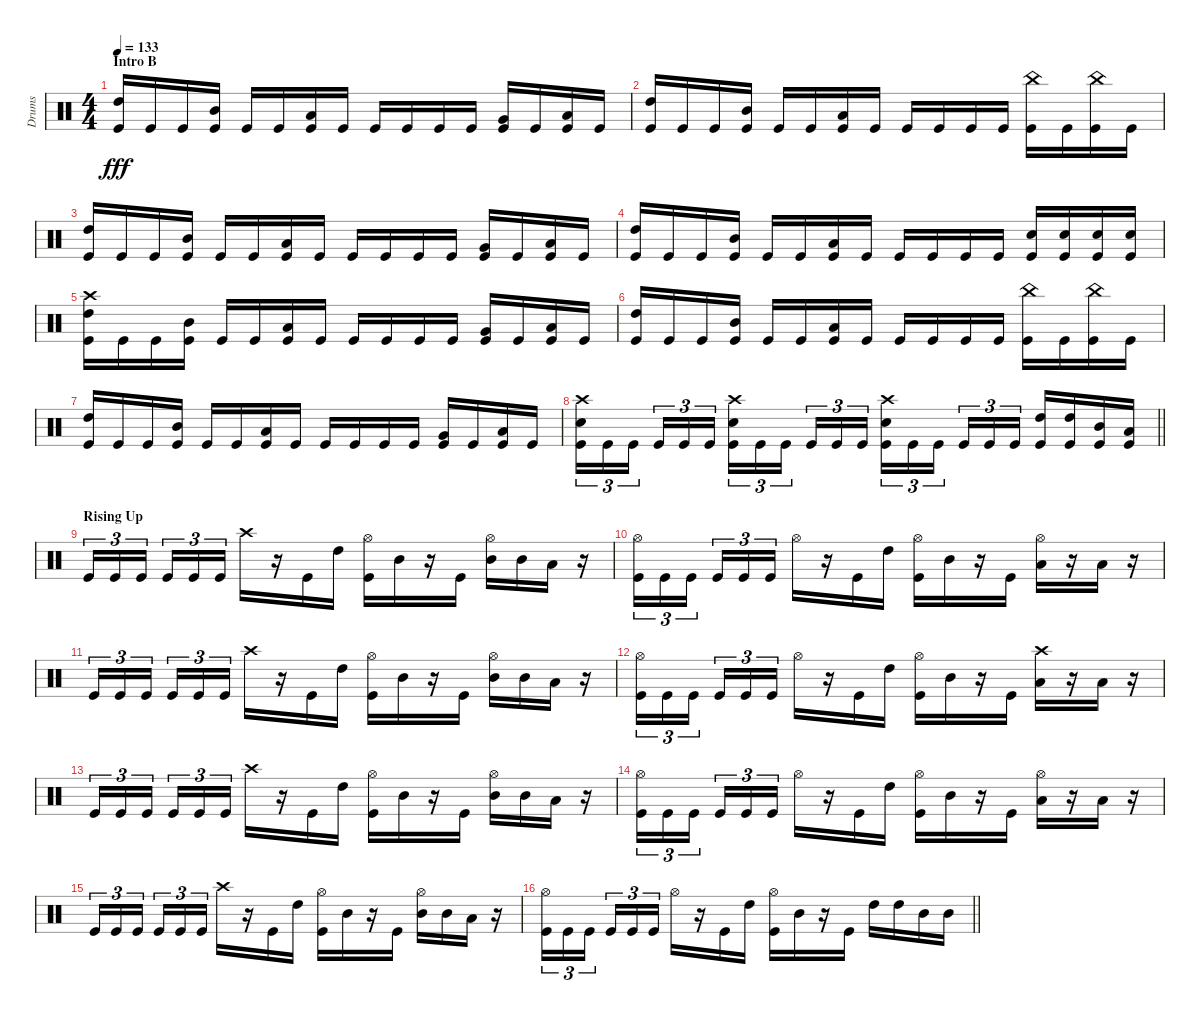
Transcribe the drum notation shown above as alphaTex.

\track ("Drums" "Drums") {instrument percussion}
\staff {score}
\articulation defaults
\ts (4 4)
\section ("" "Intro B")
\tempo 133
\clef neutral
\ks c
("High Tom (hit)" "Kick (hit)").16{dy fff} "Kick (hit)".16 "Kick (hit)".16 ("Mid Tom (hit)" "Kick (hit)").16 "Kick (hit)".16 "Kick (hit)".16 ("Low Tom (hit)" "Kick (hit)").16 "Kick (hit)".16 "Kick (hit)".16 "Kick (hit)".16 "Kick (hit)".16 "Kick (hit)".16 ("Very Low Tom (hit)" "Kick (hit)").16 "Kick (hit)".16 ("Low Floor Tom (hit)" "Kick (hit)").16 "Kick (hit)".16 |
("High Tom (hit)" "Kick (hit)").16 "Kick (hit)".16 "Kick (hit)".16 ("Mid Tom (hit)" "Kick (hit)").16 "Kick (hit)".16 "Kick (hit)".16 ("Low Tom (hit)" "Kick (hit)").16 "Kick (hit)".16 "Kick (hit)".16 "Kick (hit)".16 "Kick (hit)".16 "Kick (hit)".16 ("China (hit)" "Kick (hit)").16 "Kick (hit)".16 ("China (hit)" "Kick (hit)").16 "Kick (hit)".16 |
("High Tom (hit)" "Kick (hit)").16 "Kick (hit)".16 "Kick (hit)".16 ("Mid Tom (hit)" "Kick (hit)").16 "Kick (hit)".16 "Kick (hit)".16 ("Low Tom (hit)" "Kick (hit)").16 "Kick (hit)".16 "Kick (hit)".16 "Kick (hit)".16 "Kick (hit)".16 "Kick (hit)".16 ("Very Low Tom (hit)" "Kick (hit)").16 "Kick (hit)".16 ("Low Floor Tom (hit)" "Kick (hit)").16 "Kick (hit)".16 |
("High Tom (hit)" "Kick (hit)").16 "Kick (hit)".16 "Kick (hit)".16 ("Mid Tom (hit)" "Kick (hit)").16 "Kick (hit)".16 "Kick (hit)".16 ("Low Tom (hit)" "Kick (hit)").16 "Kick (hit)".16 "Kick (hit)".16 "Kick (hit)".16 "Kick (hit)".16 "Kick (hit)".16 ("Snare (hit) 2" "Kick (hit)").16 ("Snare (hit) 2" "Kick (hit)").16 ("Snare (hit) 2" "Kick (hit)").16 ("Snare (hit) 2" "Kick (hit)").16 |
("Crash high (hit)" "High Tom (hit)" "Kick (hit)").16 "Kick (hit)".16 "Kick (hit)".16 ("Mid Tom (hit)" "Kick (hit)").16 "Kick (hit)".16 "Kick (hit)".16 ("Low Tom (hit)" "Kick (hit)").16 "Kick (hit)".16 "Kick (hit)".16 "Kick (hit)".16 "Kick (hit)".16 "Kick (hit)".16 ("Very Low Tom (hit)" "Kick (hit)").16 "Kick (hit)".16 ("Low Floor Tom (hit)" "Kick (hit)").16 "Kick (hit)".16 |
("High Tom (hit)" "Kick (hit)").16 "Kick (hit)".16 "Kick (hit)".16 ("Mid Tom (hit)" "Kick (hit)").16 "Kick (hit)".16 "Kick (hit)".16 ("Low Tom (hit)" "Kick (hit)").16 "Kick (hit)".16 "Kick (hit)".16 "Kick (hit)".16 "Kick (hit)".16 "Kick (hit)".16 ("China (hit)" "Kick (hit)").16 "Kick (hit)".16 ("China (hit)" "Kick (hit)").16 "Kick (hit)".16 |
("High Tom (hit)" "Kick (hit)").16 "Kick (hit)".16 "Kick (hit)".16 ("Mid Tom (hit)" "Kick (hit)").16 "Kick (hit)".16 "Kick (hit)".16 ("Low Tom (hit)" "Kick (hit)").16 "Kick (hit)".16 "Kick (hit)".16 "Kick (hit)".16 "Kick (hit)".16 "Kick (hit)".16 ("Very Low Tom (hit)" "Kick (hit)").16 "Kick (hit)".16 ("Low Floor Tom (hit)" "Kick (hit)").16 "Kick (hit)".16 |
\barLineRight lightlight
("Crash high (hit)" "Snare (hit) 2" "Kick (hit)").16{tu (3 2)} "Kick (hit)".16{tu (3 2)} "Kick (hit)".16{tu (3 2) beam splitsecondary} "Kick (hit)".16{tu (3 2)} "Kick (hit)".16{tu (3 2)} "Kick (hit)".16{tu (3 2)} ("Crash high (hit)" "Snare (hit) 2" "Kick (hit)").16{tu (3 2)} "Kick (hit)".16{tu (3 2)} "Kick (hit)".16{tu (3 2) beam splitsecondary} "Kick (hit)".16{tu (3 2)} "Kick (hit)".16{tu (3 2)} "Kick (hit)".16{tu (3 2)} ("Crash high (hit)" "Snare (hit) 2" "Kick (hit)").16{tu (3 2)} "Kick (hit)".16{tu (3 2)} "Kick (hit)".16{tu (3 2) beam splitsecondary} "Kick (hit)".16{tu (3 2)} "Kick (hit)".16{tu (3 2)} "Kick (hit)".16{tu (3 2)} ("High Tom (hit)" "Kick (hit)").16 ("High Tom (hit)" "Kick (hit)").16 ("Mid Tom (hit)" "Kick (hit)").16 ("Low Tom (hit)" "Kick (hit)").16 |
\section ("" "Rising Up")
"Kick (hit)".16{tu (3 2)} "Kick (hit)".16{tu (3 2)} "Kick (hit)".16{tu (3 2) beam splitsecondary} "Kick (hit)".16{tu (3 2)} "Kick (hit)".16{tu (3 2)} "Kick (hit)".16{tu (3 2)} "Crash high (hit)".16 r.16 "Kick (hit)".16 "High Tom (hit)".16 ("Hi-Hat (open)" "Kick (hit)").16 "Mid Tom (hit)".16 r.16 "Kick (hit)".16 ("Hi-Hat (open)" "Mid Tom (hit)").16 "Mid Tom (hit)".16 "Low Tom (hit)".16 r.16 |
("Hi-Hat (open)" "Kick (hit)").16{tu (3 2)} "Kick (hit)".16{tu (3 2)} "Kick (hit)".16{tu (3 2) beam splitsecondary} "Kick (hit)".16{tu (3 2)} "Kick (hit)".16{tu (3 2)} "Kick (hit)".16{tu (3 2)} "Hi-Hat (open)".16 r.16 "Kick (hit)".16 "High Tom (hit)".16 ("Hi-Hat (open)" "Kick (hit)").16 "Mid Tom (hit)".16 r.16 "Kick (hit)".16 ("Hi-Hat (open)" "Low Tom (hit)").16 r.16 "Low Tom (hit)".16 r.16 |
"Kick (hit)".16{tu (3 2)} "Kick (hit)".16{tu (3 2)} "Kick (hit)".16{tu (3 2) beam splitsecondary} "Kick (hit)".16{tu (3 2)} "Kick (hit)".16{tu (3 2)} "Kick (hit)".16{tu (3 2)} "Crash high (hit)".16 r.16 "Kick (hit)".16 "High Tom (hit)".16 ("Hi-Hat (open)" "Kick (hit)").16 "Mid Tom (hit)".16 r.16 "Kick (hit)".16 ("Hi-Hat (open)" "Mid Tom (hit)").16 "Mid Tom (hit)".16 "Low Tom (hit)".16 r.16 |
("Hi-Hat (open)" "Kick (hit)").16{tu (3 2)} "Kick (hit)".16{tu (3 2)} "Kick (hit)".16{tu (3 2) beam splitsecondary} "Kick (hit)".16{tu (3 2)} "Kick (hit)".16{tu (3 2)} "Kick (hit)".16{tu (3 2)} "Hi-Hat (open)".16 r.16 "Kick (hit)".16 "High Tom (hit)".16 ("Hi-Hat (open)" "Kick (hit)").16 "Mid Tom (hit)".16 r.16 "Kick (hit)".16 ("Crash high (hit)" "Low Tom (hit)").16 r.16 "Low Tom (hit)".16 r.16 |
"Kick (hit)".16{tu (3 2)} "Kick (hit)".16{tu (3 2)} "Kick (hit)".16{tu (3 2) beam splitsecondary} "Kick (hit)".16{tu (3 2)} "Kick (hit)".16{tu (3 2)} "Kick (hit)".16{tu (3 2)} "Crash high (hit)".16 r.16 "Kick (hit)".16 "High Tom (hit)".16 ("Hi-Hat (open)" "Kick (hit)").16 "Mid Tom (hit)".16 r.16 "Kick (hit)".16 ("Hi-Hat (open)" "Mid Tom (hit)").16 "Mid Tom (hit)".16 "Low Tom (hit)".16 r.16 |
("Hi-Hat (open)" "Kick (hit)").16{tu (3 2)} "Kick (hit)".16{tu (3 2)} "Kick (hit)".16{tu (3 2) beam splitsecondary} "Kick (hit)".16{tu (3 2)} "Kick (hit)".16{tu (3 2)} "Kick (hit)".16{tu (3 2)} "Hi-Hat (open)".16 r.16 "Kick (hit)".16 "High Tom (hit)".16 ("Hi-Hat (open)" "Kick (hit)").16 "Mid Tom (hit)".16 r.16 "Kick (hit)".16 ("Hi-Hat (open)" "Low Tom (hit)").16 r.16 "Low Tom (hit)".16 r.16 |
"Kick (hit)".16{tu (3 2)} "Kick (hit)".16{tu (3 2)} "Kick (hit)".16{tu (3 2) beam splitsecondary} "Kick (hit)".16{tu (3 2)} "Kick (hit)".16{tu (3 2)} "Kick (hit)".16{tu (3 2)} "Crash high (hit)".16 r.16 "Kick (hit)".16 "High Tom (hit)".16 ("Hi-Hat (open)" "Kick (hit)").16 "Mid Tom (hit)".16 r.16 "Kick (hit)".16 ("Hi-Hat (open)" "Mid Tom (hit)").16 "Mid Tom (hit)".16 "Low Tom (hit)".16 r.16 |
\barLineRight lightlight
("Hi-Hat (open)" "Kick (hit)").16{tu (3 2)} "Kick (hit)".16{tu (3 2)} "Kick (hit)".16{tu (3 2) beam splitsecondary} "Kick (hit)".16{tu (3 2)} "Kick (hit)".16{tu (3 2)} "Kick (hit)".16{tu (3 2)} "Hi-Hat (open)".16 r.16 "Kick (hit)".16 "High Tom (hit)".16 ("Hi-Hat (open)" "Kick (hit)").16 "Mid Tom (hit)".16 r.16 "Kick (hit)".16 "High Tom (hit)".16 "High Tom (hit)".16 "Mid Tom (hit)".16 "Mid Tom (hit)".16
